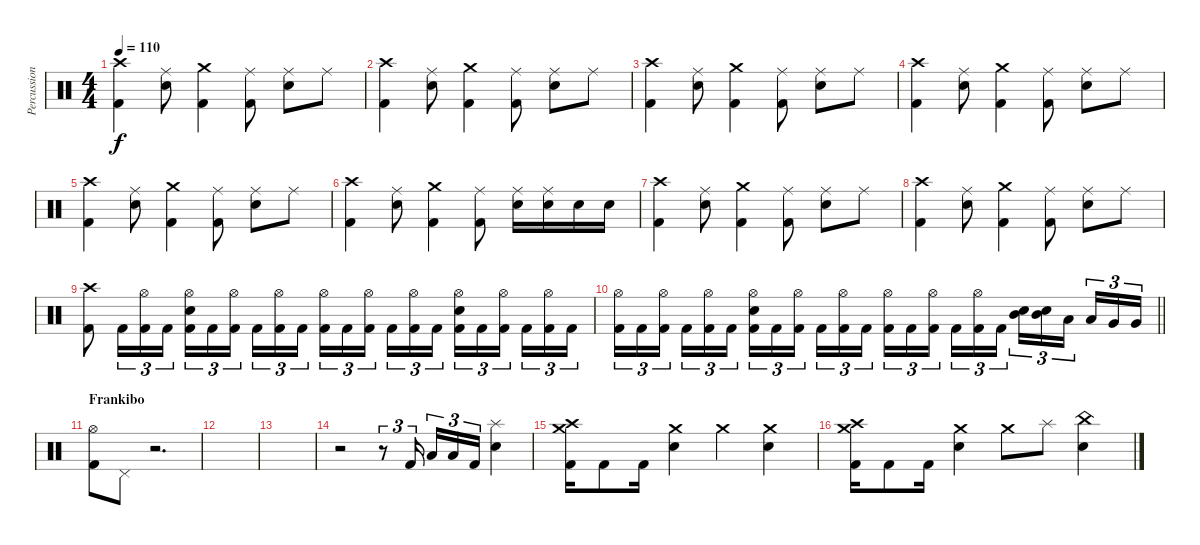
\track ("Percussion" "Percussion") {instrument percussion}
\staff {score}
\articulation defaults
\ts (4 4)
\tempo 110
\clef neutral
\ks c
("Crash high (hit)" "Kick (hit) 2").4{dy f} ("Ride (middle)" "Electric Snare (hit)").8 ("Crash medium (hit)" "Kick (hit) 2").4 ("Ride (middle)" "Kick (hit) 2").8 ("Ride (middle)" "Electric Snare (hit)").8 "Ride (middle)".8 |
("Crash high (hit)" "Kick (hit) 2").4 ("Ride (middle)" "Electric Snare (hit)").8 ("Crash medium (hit)" "Kick (hit) 2").4 ("Ride (middle)" "Kick (hit) 2").8 ("Ride (middle)" "Electric Snare (hit)").8 "Ride (middle)".8 |
("Crash high (hit)" "Kick (hit) 2").4 ("Ride (middle)" "Electric Snare (hit)").8 ("Crash medium (hit)" "Kick (hit) 2").4 ("Ride (middle)" "Kick (hit) 2").8 ("Ride (middle)" "Electric Snare (hit)").8 "Ride (middle)".8 |
("Crash high (hit)" "Kick (hit) 2").4 ("Ride (middle)" "Electric Snare (hit)").8 ("Crash medium (hit)" "Kick (hit) 2").4 ("Ride (middle)" "Kick (hit) 2").8 ("Ride (middle)" "Electric Snare (hit)").8 "Ride (middle)".8 |
("Crash high (hit)" "Kick (hit) 2").4 ("Ride (middle)" "Electric Snare (hit)").8 ("Crash medium (hit)" "Kick (hit) 2").4 ("Ride (middle)" "Kick (hit) 2").8 ("Ride (middle)" "Electric Snare (hit)").8 "Ride (middle)".8 |
("Crash high (hit)" "Kick (hit) 2").4 ("Ride (middle)" "Electric Snare (hit)").8 ("Crash medium (hit)" "Kick (hit) 2").4 ("Ride (middle)" "Kick (hit) 2").8 ("Ride (middle)" "Electric Snare (hit)").16 ("Ride (middle)" "Electric Snare (hit)").16 "Electric Snare (hit)".16 "Electric Snare (hit)".16 |
("Crash high (hit)" "Kick (hit) 2").4 ("Ride (middle)" "Electric Snare (hit)").8 ("Crash medium (hit)" "Kick (hit) 2").4 ("Ride (middle)" "Kick (hit) 2").8 ("Ride (middle)" "Electric Snare (hit)").8 "Ride (middle)".8 |
("Crash high (hit)" "Kick (hit) 2").4 ("Ride (middle)" "Electric Snare (hit)").8 ("Crash medium (hit)" "Kick (hit) 2").4 ("Ride (middle)" "Kick (hit) 2").8 ("Ride (middle)" "Electric Snare (hit)").8 "Ride (middle)".8 |
("Crash high (hit)" "Kick (hit) 2").8 "Kick (hit) 2".16{tu (3 2)} ("Hi-Hat (open)" "Kick (hit) 2").16{tu (3 2)} "Kick (hit) 2".16{tu (3 2)} ("Hi-Hat (open)" "Electric Snare (hit)" "Kick (hit) 2").16{tu (3 2)} "Kick (hit) 2".16{tu (3 2)} ("Hi-Hat (open)" "Kick (hit) 2").16{tu (3 2) beam splitsecondary} "Kick (hit) 2".16{tu (3 2)} ("Hi-Hat (open)" "Kick (hit) 2").16{tu (3 2)} "Kick (hit) 2".16{tu (3 2)} ("Hi-Hat (open)" "Kick (hit) 2").16{tu (3 2)} "Kick (hit) 2".16{tu (3 2)} ("Hi-Hat (open)" "Kick (hit) 2").16{tu (3 2) beam splitsecondary} "Kick (hit) 2".16{tu (3 2)} ("Hi-Hat (open)" "Kick (hit) 2").16{tu (3 2)} "Kick (hit) 2".16{tu (3 2)} ("Hi-Hat (open)" "Electric Snare (hit)" "Kick (hit) 2").16{tu (3 2)} "Kick (hit) 2".16{tu (3 2)} ("Hi-Hat (open)" "Kick (hit) 2").16{tu (3 2) beam splitsecondary} "Kick (hit) 2".16{tu (3 2)} ("Hi-Hat (open)" "Kick (hit) 2").16{tu (3 2)} "Kick (hit) 2".16{tu (3 2)} |
\barLineRight lightlight
("Hi-Hat (open)" "Kick (hit) 2").16{tu (3 2)} "Kick (hit) 2".16{tu (3 2)} ("Hi-Hat (open)" "Kick (hit) 2").16{tu (3 2) beam splitsecondary} "Kick (hit) 2".16{tu (3 2)} ("Hi-Hat (open)" "Kick (hit) 2").16{tu (3 2)} "Kick (hit) 2".16{tu (3 2)} ("Hi-Hat (open)" "Electric Snare (hit)" "Kick (hit) 2").16{tu (3 2)} "Kick (hit) 2".16{tu (3 2)} ("Hi-Hat (open)" "Kick (hit) 2").16{tu (3 2) beam splitsecondary} "Kick (hit) 2".16{tu (3 2)} ("Hi-Hat (open)" "Kick (hit) 2").16{tu (3 2)} "Kick (hit) 2".16{tu (3 2)} ("Hi-Hat (open)" "Kick (hit) 2").16{tu (3 2)} "Kick (hit) 2".16{tu (3 2)} ("Hi-Hat (open)" "Kick (hit) 2").16{tu (3 2) beam splitsecondary} "Kick (hit) 2".16{tu (3 2)} ("Hi-Hat (open)" "Kick (hit) 2").16{tu (3 2)} "Kick (hit) 2".16{tu (3 2)} ("Mid Tom (hit)" "Electric Snare (hit)").16{tu (3 2)} ("Mid Tom (hit)" "Electric Snare (hit)").16{tu (3 2)} "Low Tom (hit)".16{tu (3 2) beam splitsecondary} "Low Tom (hit)".16{tu (3 2)} "Very Low Tom (hit)".16{tu (3 2)} "Very Low Tom (hit)".16{tu (3 2)} |
\section ("" "Frankibo")
("Hi-Hat (open)" "Kick (hit) 2").8 "Pedal Hi-Hat (hit)".8 r.2{d} |
|
|
r.2 r.8{tu (3 2)} "Kick (hit) 2".16{tu (3 2) beam splitsecondary} "Low Tom (hit)".16{tu (3 2)} "Low Floor Tom (hit)".16{tu (3 2)} "Kick (hit) 2".16{tu (3 2)} ("Splash (hit)" "Electric Snare (hit)").4 |
("Crash medium (hit)" "Crash high (hit)" "Kick (hit) 2").16 "Kick (hit) 2".8 "Kick (hit) 2".16 ("Crash medium (hit)" "Electric Snare (hit)").4 "Crash medium (hit)".4 ("Crash medium (hit)" "Electric Snare (hit)").4 |
("Crash medium (hit)" "Crash high (hit)" "Kick (hit) 2").16 "Kick (hit) 2".8 "Kick (hit) 2".16 ("Crash medium (hit)" "Electric Snare (hit)").4 "Crash medium (hit)".8 "Splash (hit)".8 ("China (hit)" "Electric Snare (hit)").4
